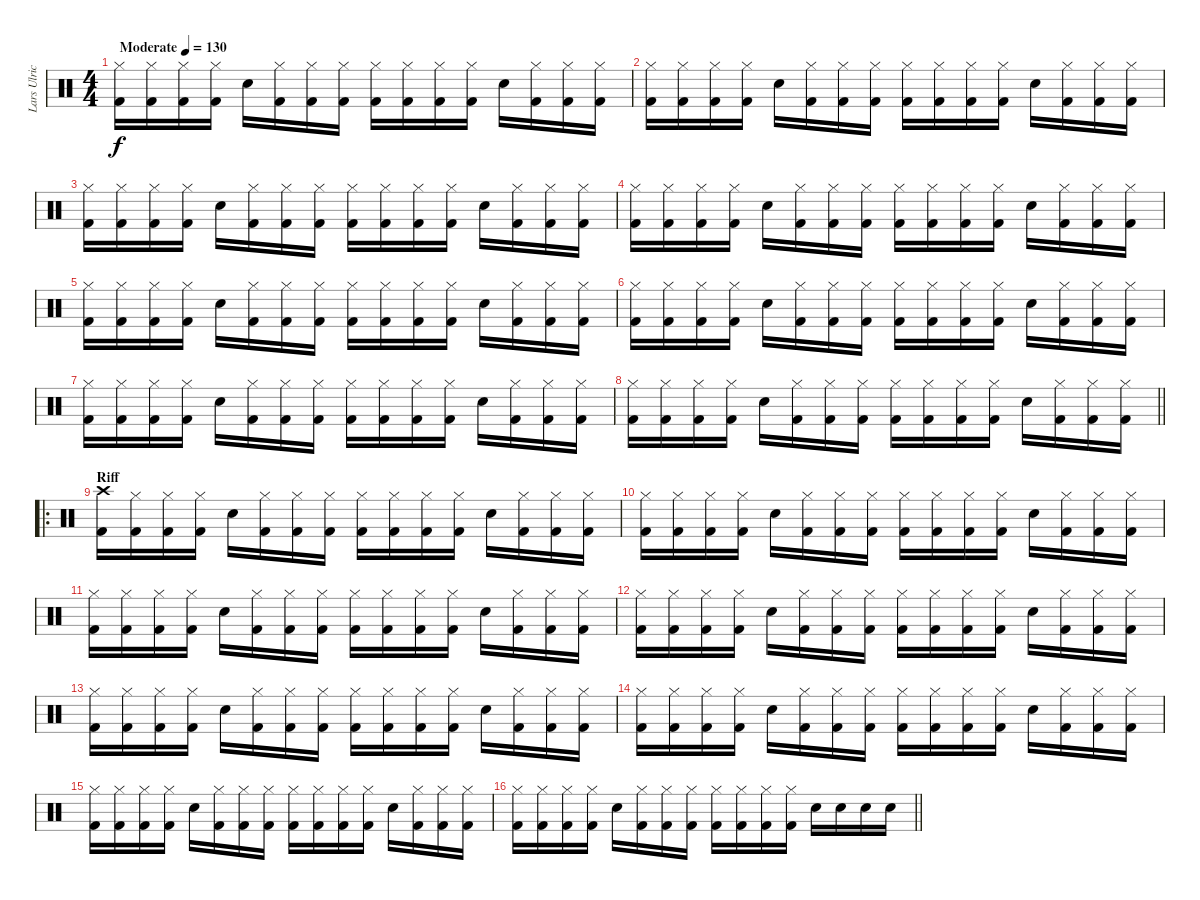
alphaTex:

\track ("Lars Ulrich" "Lars Ulric") {instrument percussion}
\staff {score}
\articulation defaults
\ts (4 4)
\tempo (130 "Moderate")
\clef neutral
\ks c
("Kick (hit) 2" "Hi-Hat (closed)").16{dy f} ("Kick (hit) 2" "Hi-Hat (closed)").16 ("Kick (hit) 2" "Hi-Hat (closed)").16 ("Kick (hit) 2" "Hi-Hat (closed)").16 "Electric Snare (hit)".16 ("Kick (hit) 2" "Hi-Hat (closed)").16 ("Kick (hit) 2" "Hi-Hat (closed)").16 ("Kick (hit) 2" "Hi-Hat (closed)").16 ("Kick (hit) 2" "Hi-Hat (closed)").16 ("Kick (hit) 2" "Hi-Hat (closed)").16 ("Kick (hit) 2" "Hi-Hat (closed)").16 ("Kick (hit) 2" "Hi-Hat (closed)").16 "Electric Snare (hit)".16 ("Kick (hit) 2" "Hi-Hat (closed)").16 ("Kick (hit) 2" "Hi-Hat (closed)").16 ("Kick (hit) 2" "Hi-Hat (closed)").16 |
("Kick (hit) 2" "Hi-Hat (closed)").16 ("Kick (hit) 2" "Hi-Hat (closed)").16 ("Kick (hit) 2" "Hi-Hat (closed)").16 ("Kick (hit) 2" "Hi-Hat (closed)").16 "Electric Snare (hit)".16 ("Kick (hit) 2" "Hi-Hat (closed)").16 ("Kick (hit) 2" "Hi-Hat (closed)").16 ("Kick (hit) 2" "Hi-Hat (closed)").16 ("Kick (hit) 2" "Hi-Hat (closed)").16 ("Kick (hit) 2" "Hi-Hat (closed)").16 ("Kick (hit) 2" "Hi-Hat (closed)").16 ("Kick (hit) 2" "Hi-Hat (closed)").16 "Electric Snare (hit)".16 ("Kick (hit) 2" "Hi-Hat (closed)").16 ("Kick (hit) 2" "Hi-Hat (closed)").16 ("Kick (hit) 2" "Hi-Hat (closed)").16 |
("Kick (hit) 2" "Hi-Hat (closed)").16 ("Kick (hit) 2" "Hi-Hat (closed)").16 ("Kick (hit) 2" "Hi-Hat (closed)").16 ("Kick (hit) 2" "Hi-Hat (closed)").16 "Electric Snare (hit)".16 ("Kick (hit) 2" "Hi-Hat (closed)").16 ("Kick (hit) 2" "Hi-Hat (closed)").16 ("Kick (hit) 2" "Hi-Hat (closed)").16 ("Kick (hit) 2" "Hi-Hat (closed)").16 ("Kick (hit) 2" "Hi-Hat (closed)").16 ("Kick (hit) 2" "Hi-Hat (closed)").16 ("Kick (hit) 2" "Hi-Hat (closed)").16 "Electric Snare (hit)".16 ("Kick (hit) 2" "Hi-Hat (closed)").16 ("Kick (hit) 2" "Hi-Hat (closed)").16 ("Kick (hit) 2" "Hi-Hat (closed)").16 |
("Kick (hit) 2" "Hi-Hat (closed)").16 ("Kick (hit) 2" "Hi-Hat (closed)").16 ("Kick (hit) 2" "Hi-Hat (closed)").16 ("Kick (hit) 2" "Hi-Hat (closed)").16 "Electric Snare (hit)".16 ("Kick (hit) 2" "Hi-Hat (closed)").16 ("Kick (hit) 2" "Hi-Hat (closed)").16 ("Kick (hit) 2" "Hi-Hat (closed)").16 ("Kick (hit) 2" "Hi-Hat (closed)").16 ("Kick (hit) 2" "Hi-Hat (closed)").16 ("Kick (hit) 2" "Hi-Hat (closed)").16 ("Kick (hit) 2" "Hi-Hat (closed)").16 "Electric Snare (hit)".16 ("Kick (hit) 2" "Hi-Hat (closed)").16 ("Kick (hit) 2" "Hi-Hat (closed)").16 ("Kick (hit) 2" "Hi-Hat (closed)").16 |
("Kick (hit) 2" "Hi-Hat (closed)").16 ("Kick (hit) 2" "Hi-Hat (closed)").16 ("Kick (hit) 2" "Hi-Hat (closed)").16 ("Kick (hit) 2" "Hi-Hat (closed)").16 "Electric Snare (hit)".16 ("Kick (hit) 2" "Hi-Hat (closed)").16 ("Kick (hit) 2" "Hi-Hat (closed)").16 ("Kick (hit) 2" "Hi-Hat (closed)").16 ("Kick (hit) 2" "Hi-Hat (closed)").16 ("Kick (hit) 2" "Hi-Hat (closed)").16 ("Kick (hit) 2" "Hi-Hat (closed)").16 ("Kick (hit) 2" "Hi-Hat (closed)").16 "Electric Snare (hit)".16 ("Kick (hit) 2" "Hi-Hat (closed)").16 ("Kick (hit) 2" "Hi-Hat (closed)").16 ("Kick (hit) 2" "Hi-Hat (closed)").16 |
("Kick (hit) 2" "Hi-Hat (closed)").16 ("Kick (hit) 2" "Hi-Hat (closed)").16 ("Kick (hit) 2" "Hi-Hat (closed)").16 ("Kick (hit) 2" "Hi-Hat (closed)").16 "Electric Snare (hit)".16 ("Kick (hit) 2" "Hi-Hat (closed)").16 ("Kick (hit) 2" "Hi-Hat (closed)").16 ("Kick (hit) 2" "Hi-Hat (closed)").16 ("Kick (hit) 2" "Hi-Hat (closed)").16 ("Kick (hit) 2" "Hi-Hat (closed)").16 ("Kick (hit) 2" "Hi-Hat (closed)").16 ("Kick (hit) 2" "Hi-Hat (closed)").16 "Electric Snare (hit)".16 ("Kick (hit) 2" "Hi-Hat (closed)").16 ("Kick (hit) 2" "Hi-Hat (closed)").16 ("Kick (hit) 2" "Hi-Hat (closed)").16 |
("Kick (hit) 2" "Hi-Hat (closed)").16 ("Kick (hit) 2" "Hi-Hat (closed)").16 ("Kick (hit) 2" "Hi-Hat (closed)").16 ("Kick (hit) 2" "Hi-Hat (closed)").16 "Electric Snare (hit)".16 ("Kick (hit) 2" "Hi-Hat (closed)").16 ("Kick (hit) 2" "Hi-Hat (closed)").16 ("Kick (hit) 2" "Hi-Hat (closed)").16 ("Kick (hit) 2" "Hi-Hat (closed)").16 ("Kick (hit) 2" "Hi-Hat (closed)").16 ("Kick (hit) 2" "Hi-Hat (closed)").16 ("Kick (hit) 2" "Hi-Hat (closed)").16 "Electric Snare (hit)".16 ("Kick (hit) 2" "Hi-Hat (closed)").16 ("Kick (hit) 2" "Hi-Hat (closed)").16 ("Kick (hit) 2" "Hi-Hat (closed)").16 |
\barLineRight lightlight
("Kick (hit) 2" "Hi-Hat (closed)").16 ("Kick (hit) 2" "Hi-Hat (closed)").16 ("Kick (hit) 2" "Hi-Hat (closed)").16 ("Kick (hit) 2" "Hi-Hat (closed)").16 "Electric Snare (hit)".16 ("Kick (hit) 2" "Hi-Hat (closed)").16 ("Kick (hit) 2" "Hi-Hat (closed)").16 ("Kick (hit) 2" "Hi-Hat (closed)").16 ("Kick (hit) 2" "Hi-Hat (closed)").16 ("Kick (hit) 2" "Hi-Hat (closed)").16 ("Kick (hit) 2" "Hi-Hat (closed)").16 ("Kick (hit) 2" "Hi-Hat (closed)").16 "Electric Snare (hit)".16 ("Kick (hit) 2" "Hi-Hat (closed)").16 ("Kick (hit) 2" "Hi-Hat (closed)").16 ("Kick (hit) 2" "Hi-Hat (closed)").16 |
\ro
\section ("" "Riff")
("Kick (hit) 2" "Crash high (hit)").16 ("Kick (hit) 2" "Hi-Hat (closed)").16 ("Kick (hit) 2" "Hi-Hat (closed)").16 ("Kick (hit) 2" "Hi-Hat (closed)").16 "Electric Snare (hit)".16 ("Kick (hit) 2" "Hi-Hat (closed)").16 ("Kick (hit) 2" "Hi-Hat (closed)").16 ("Kick (hit) 2" "Hi-Hat (closed)").16 ("Kick (hit) 2" "Hi-Hat (closed)").16 ("Kick (hit) 2" "Hi-Hat (closed)").16 ("Kick (hit) 2" "Hi-Hat (closed)").16 ("Kick (hit) 2" "Hi-Hat (closed)").16 "Electric Snare (hit)".16 ("Kick (hit) 2" "Hi-Hat (closed)").16 ("Kick (hit) 2" "Hi-Hat (closed)").16 ("Kick (hit) 2" "Hi-Hat (closed)").16 |
("Kick (hit) 2" "Hi-Hat (closed)").16 ("Kick (hit) 2" "Hi-Hat (closed)").16 ("Kick (hit) 2" "Hi-Hat (closed)").16 ("Kick (hit) 2" "Hi-Hat (closed)").16 "Electric Snare (hit)".16 ("Kick (hit) 2" "Hi-Hat (closed)").16 ("Kick (hit) 2" "Hi-Hat (closed)").16 ("Kick (hit) 2" "Hi-Hat (closed)").16 ("Kick (hit) 2" "Hi-Hat (closed)").16 ("Kick (hit) 2" "Hi-Hat (closed)").16 ("Kick (hit) 2" "Hi-Hat (closed)").16 ("Kick (hit) 2" "Hi-Hat (closed)").16 "Electric Snare (hit)".16 ("Kick (hit) 2" "Hi-Hat (closed)").16 ("Kick (hit) 2" "Hi-Hat (closed)").16 ("Kick (hit) 2" "Hi-Hat (closed)").16 |
("Kick (hit) 2" "Hi-Hat (closed)").16 ("Kick (hit) 2" "Hi-Hat (closed)").16 ("Kick (hit) 2" "Hi-Hat (closed)").16 ("Kick (hit) 2" "Hi-Hat (closed)").16 "Electric Snare (hit)".16 ("Kick (hit) 2" "Hi-Hat (closed)").16 ("Kick (hit) 2" "Hi-Hat (closed)").16 ("Kick (hit) 2" "Hi-Hat (closed)").16 ("Kick (hit) 2" "Hi-Hat (closed)").16 ("Kick (hit) 2" "Hi-Hat (closed)").16 ("Kick (hit) 2" "Hi-Hat (closed)").16 ("Kick (hit) 2" "Hi-Hat (closed)").16 "Electric Snare (hit)".16 ("Kick (hit) 2" "Hi-Hat (closed)").16 ("Kick (hit) 2" "Hi-Hat (closed)").16 ("Kick (hit) 2" "Hi-Hat (closed)").16 |
("Kick (hit) 2" "Hi-Hat (closed)").16 ("Kick (hit) 2" "Hi-Hat (closed)").16 ("Kick (hit) 2" "Hi-Hat (closed)").16 ("Kick (hit) 2" "Hi-Hat (closed)").16 "Electric Snare (hit)".16 ("Kick (hit) 2" "Hi-Hat (closed)").16 ("Kick (hit) 2" "Hi-Hat (closed)").16 ("Kick (hit) 2" "Hi-Hat (closed)").16 ("Kick (hit) 2" "Hi-Hat (closed)").16 ("Kick (hit) 2" "Hi-Hat (closed)").16 ("Kick (hit) 2" "Hi-Hat (closed)").16 ("Kick (hit) 2" "Hi-Hat (closed)").16 "Electric Snare (hit)".16 ("Kick (hit) 2" "Hi-Hat (closed)").16 ("Kick (hit) 2" "Hi-Hat (closed)").16 ("Kick (hit) 2" "Hi-Hat (closed)").16 |
("Kick (hit) 2" "Hi-Hat (closed)").16 ("Kick (hit) 2" "Hi-Hat (closed)").16 ("Kick (hit) 2" "Hi-Hat (closed)").16 ("Kick (hit) 2" "Hi-Hat (closed)").16 "Electric Snare (hit)".16 ("Kick (hit) 2" "Hi-Hat (closed)").16 ("Kick (hit) 2" "Hi-Hat (closed)").16 ("Kick (hit) 2" "Hi-Hat (closed)").16 ("Kick (hit) 2" "Hi-Hat (closed)").16 ("Kick (hit) 2" "Hi-Hat (closed)").16 ("Kick (hit) 2" "Hi-Hat (closed)").16 ("Kick (hit) 2" "Hi-Hat (closed)").16 "Electric Snare (hit)".16 ("Kick (hit) 2" "Hi-Hat (closed)").16 ("Kick (hit) 2" "Hi-Hat (closed)").16 ("Kick (hit) 2" "Hi-Hat (closed)").16 |
("Kick (hit) 2" "Hi-Hat (closed)").16 ("Kick (hit) 2" "Hi-Hat (closed)").16 ("Kick (hit) 2" "Hi-Hat (closed)").16 ("Kick (hit) 2" "Hi-Hat (closed)").16 "Electric Snare (hit)".16 ("Kick (hit) 2" "Hi-Hat (closed)").16 ("Kick (hit) 2" "Hi-Hat (closed)").16 ("Kick (hit) 2" "Hi-Hat (closed)").16 ("Kick (hit) 2" "Hi-Hat (closed)").16 ("Kick (hit) 2" "Hi-Hat (closed)").16 ("Kick (hit) 2" "Hi-Hat (closed)").16 ("Kick (hit) 2" "Hi-Hat (closed)").16 "Electric Snare (hit)".16 ("Kick (hit) 2" "Hi-Hat (closed)").16 ("Kick (hit) 2" "Hi-Hat (closed)").16 ("Kick (hit) 2" "Hi-Hat (closed)").16 |
("Kick (hit) 2" "Hi-Hat (closed)").16 ("Kick (hit) 2" "Hi-Hat (closed)").16 ("Kick (hit) 2" "Hi-Hat (closed)").16 ("Kick (hit) 2" "Hi-Hat (closed)").16 "Electric Snare (hit)".16 ("Kick (hit) 2" "Hi-Hat (closed)").16 ("Kick (hit) 2" "Hi-Hat (closed)").16 ("Kick (hit) 2" "Hi-Hat (closed)").16 ("Kick (hit) 2" "Hi-Hat (closed)").16 ("Kick (hit) 2" "Hi-Hat (closed)").16 ("Kick (hit) 2" "Hi-Hat (closed)").16 ("Kick (hit) 2" "Hi-Hat (closed)").16 "Electric Snare (hit)".16 ("Kick (hit) 2" "Hi-Hat (closed)").16 ("Kick (hit) 2" "Hi-Hat (closed)").16 ("Kick (hit) 2" "Hi-Hat (closed)").16 |
\barLineRight lightlight
("Kick (hit) 2" "Hi-Hat (closed)").16 ("Kick (hit) 2" "Hi-Hat (closed)").16 ("Kick (hit) 2" "Hi-Hat (closed)").16 ("Kick (hit) 2" "Hi-Hat (closed)").16 "Electric Snare (hit)".16 ("Kick (hit) 2" "Hi-Hat (closed)").16 ("Kick (hit) 2" "Hi-Hat (closed)").16 ("Kick (hit) 2" "Hi-Hat (closed)").16 ("Kick (hit) 2" "Hi-Hat (closed)").16 ("Kick (hit) 2" "Hi-Hat (closed)").16 ("Kick (hit) 2" "Hi-Hat (closed)").16 ("Kick (hit) 2" "Hi-Hat (closed)").16 "Electric Snare (hit)".16 "Electric Snare (hit)".16 "Electric Snare (hit)".16 "Electric Snare (hit)".16
